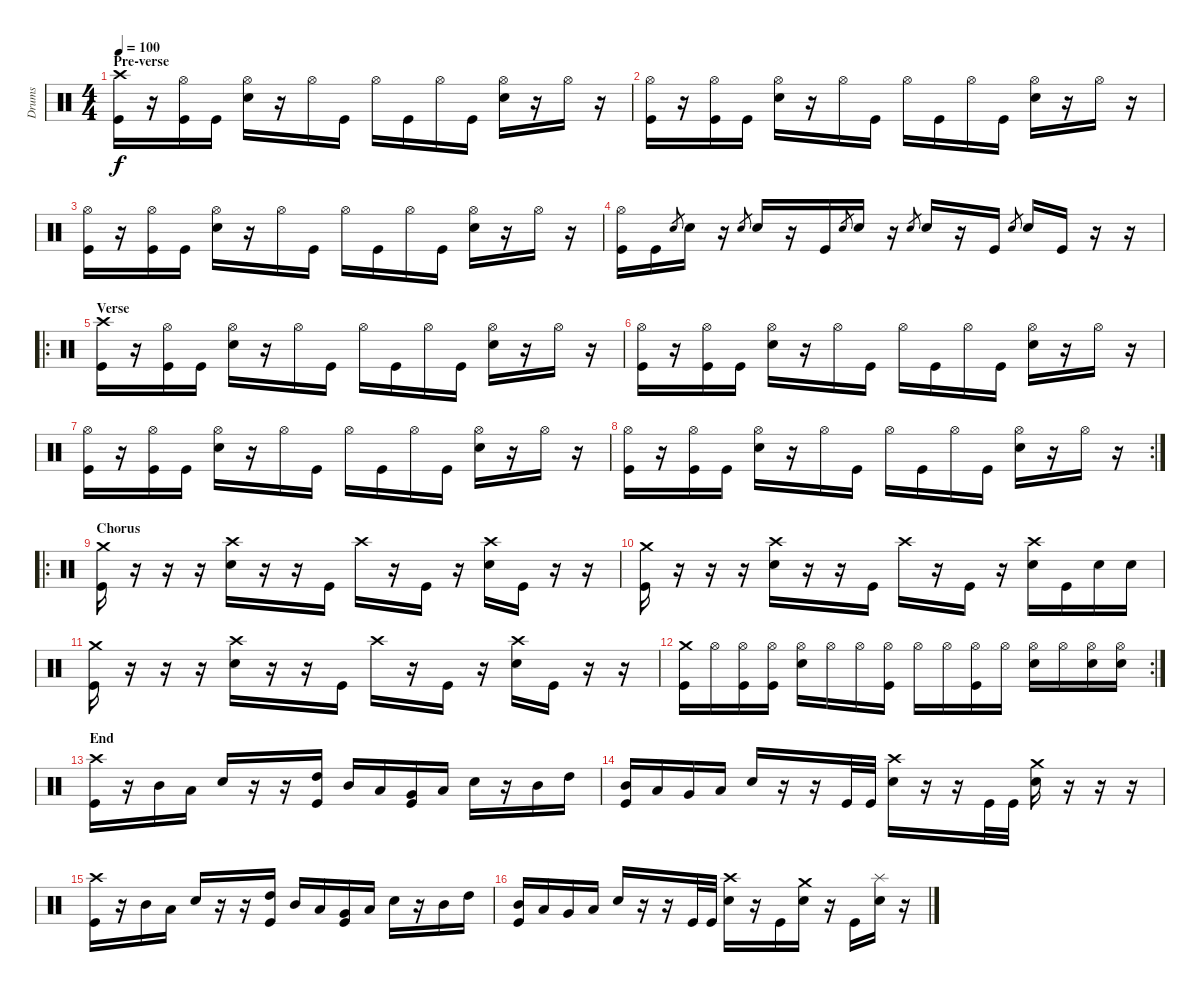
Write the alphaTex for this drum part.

\track ("Drums" "Drums") {instrument percussion}
\staff {score}
\articulation defaults
\ts (4 4)
\section ("" "Pre-verse")
\tempo 100
\clef neutral
\ks c
("Crash high (hit)" "Kick (hit)").16{dy f} r.16 ("Hi-Hat (open)" "Kick (hit)").16 "Kick (hit)".16 ("Hi-Hat (open)" "Electric Snare (hit)").16 r.16 "Hi-Hat (open)".16 "Kick (hit)".16 "Hi-Hat (open)".16 "Kick (hit)".16 "Hi-Hat (open)".16 "Kick (hit)".16 ("Hi-Hat (open)" "Electric Snare (hit)").16 r.16 "Hi-Hat (open)".16 r.16 |
("Hi-Hat (open)" "Kick (hit)").16 r.16 ("Hi-Hat (open)" "Kick (hit)").16 "Kick (hit)".16 ("Hi-Hat (open)" "Electric Snare (hit)").16 r.16 "Hi-Hat (open)".16 "Kick (hit)".16 "Hi-Hat (open)".16 "Kick (hit)".16 "Hi-Hat (open)".16 "Kick (hit)".16 ("Hi-Hat (open)" "Electric Snare (hit)").16 r.16 "Hi-Hat (open)".16 r.16 |
("Hi-Hat (open)" "Kick (hit)").16 r.16 ("Hi-Hat (open)" "Kick (hit)").16 "Kick (hit)".16 ("Hi-Hat (open)" "Electric Snare (hit)").16 r.16 "Hi-Hat (open)".16 "Kick (hit)".16 "Hi-Hat (open)".16 "Kick (hit)".16 "Hi-Hat (open)".16 "Kick (hit)".16 ("Hi-Hat (open)" "Electric Snare (hit)").16 r.16 "Hi-Hat (open)".16 r.16 |
("Hi-Hat (open)" "Kick (hit)").16 "Kick (hit)".16 "Electric Snare (hit)".8{gr} "Electric Snare (hit)".16 r.16 "Electric Snare (hit)".8{gr} "Electric Snare (hit)".16 r.16 "Kick (hit)".16 "Electric Snare (hit)".8{gr} "Electric Snare (hit)".16 r.16 "Electric Snare (hit)".8{gr} "Electric Snare (hit)".16 r.16 "Kick (hit)".16 "Electric Snare (hit)".8{gr} "Electric Snare (hit)".16 "Kick (hit)".16 r.16 r.16 |
\ro
\section ("" "Verse")
("Crash high (hit)" "Kick (hit)").16 r.16 ("Hi-Hat (open)" "Kick (hit)").16 "Kick (hit)".16 ("Hi-Hat (open)" "Electric Snare (hit)").16 r.16 "Hi-Hat (open)".16 "Kick (hit)".16 "Hi-Hat (open)".16 "Kick (hit)".16 "Hi-Hat (open)".16 "Kick (hit)".16 ("Hi-Hat (open)" "Electric Snare (hit)").16 r.16 "Hi-Hat (open)".16 r.16 |
("Hi-Hat (open)" "Kick (hit)").16 r.16 ("Hi-Hat (open)" "Kick (hit)").16 "Kick (hit)".16 ("Hi-Hat (open)" "Electric Snare (hit)").16 r.16 "Hi-Hat (open)".16 "Kick (hit)".16 "Hi-Hat (open)".16 "Kick (hit)".16 "Hi-Hat (open)".16 "Kick (hit)".16 ("Hi-Hat (open)" "Electric Snare (hit)").16 r.16 "Hi-Hat (open)".16 r.16 |
("Hi-Hat (open)" "Kick (hit)").16 r.16 ("Hi-Hat (open)" "Kick (hit)").16 "Kick (hit)".16 ("Hi-Hat (open)" "Electric Snare (hit)").16 r.16 "Hi-Hat (open)".16 "Kick (hit)".16 "Hi-Hat (open)".16 "Kick (hit)".16 "Hi-Hat (open)".16 "Kick (hit)".16 ("Hi-Hat (open)" "Electric Snare (hit)").16 r.16 "Hi-Hat (open)".16 r.16 |
\rc 2
("Hi-Hat (open)" "Kick (hit)").16 r.16 ("Hi-Hat (open)" "Kick (hit)").16 "Kick (hit)".16 ("Hi-Hat (open)" "Electric Snare (hit)").16 r.16 "Hi-Hat (open)".16 "Kick (hit)".16 "Hi-Hat (open)".16 "Kick (hit)".16 "Hi-Hat (open)".16 "Kick (hit)".16 ("Hi-Hat (open)" "Electric Snare (hit)").16 r.16 "Hi-Hat (open)".16 r.16 |
\ro
\section ("" "Chorus")
("Crash medium (hit)" "Kick (hit)").16 r.16 r.16 r.16 ("Crash high (hit)" "Electric Snare (hit)").16 r.16 r.16 "Kick (hit)".16 "Crash high (hit)".16 r.16 "Kick (hit)".16 r.16 ("Crash high (hit)" "Electric Snare (hit)").16 "Kick (hit)".16 r.16 r.16 |
("Crash medium (hit)" "Kick (hit)").16 r.16 r.16 r.16 ("Crash high (hit)" "Electric Snare (hit)").16 r.16 r.16 "Kick (hit)".16 "Crash high (hit)".16 r.16 "Kick (hit)".16 r.16 ("Crash high (hit)" "Electric Snare (hit)").16 "Kick (hit)".16 "Electric Snare (hit)".16 "Electric Snare (hit)".16 |
("Crash medium (hit)" "Kick (hit)").16 r.16 r.16 r.16 ("Crash high (hit)" "Electric Snare (hit)").16 r.16 r.16 "Kick (hit)".16 "Crash high (hit)".16 r.16 "Kick (hit)".16 r.16 ("Crash high (hit)" "Electric Snare (hit)").16 "Kick (hit)".16 r.16 r.16 |
\rc 2
("Crash medium (hit)" "Kick (hit)").16 "Hi-Hat (open)".16 ("Hi-Hat (open)" "Kick (hit)").16 ("Hi-Hat (open)" "Kick (hit)").16 ("Hi-Hat (open)" "Electric Snare (hit)").16 "Hi-Hat (open)".16 "Hi-Hat (open)".16 ("Hi-Hat (open)" "Kick (hit)").16 "Hi-Hat (open)".16 "Hi-Hat (open)".16 ("Hi-Hat (open)" "Kick (hit)").16 "Hi-Hat (open)".16 ("Hi-Hat (open)" "Electric Snare (hit)").16 "Hi-Hat (open)".16 ("Hi-Hat (open)" "Electric Snare (hit)").16 ("Hi-Hat (open)" "Electric Snare (hit)").16 |
\section ("" "End")
("Crash high (hit)" "Kick (hit)").16 r.16 "Mid Tom (hit)".16 "Low Tom (hit)".16 "Electric Snare (hit)".16 r.16 r.16 ("High Tom (hit)" "Kick (hit)").16 "Mid Tom (hit)".16 "Low Tom (hit)".16 ("Very Low Tom (hit)" "Kick (hit)").16 "Low Floor Tom (hit)".16 "Electric Snare (hit)".16 r.16 "Mid Tom (hit)".16 "High Tom (hit)".16 |
("Mid Tom (hit)" "Kick (hit)").16 "Low Tom (hit)".16 "Very Low Tom (hit)".16 "Low Floor Tom (hit)".16 "Electric Snare (hit)".16 r.16 r.16 "Kick (hit)".32 "Kick (hit)".32 ("Crash high (hit)" "Electric Snare (hit)").16 r.16 r.16 "Kick (hit)".32 "Kick (hit)".32 ("Crash medium (hit)" "Electric Snare (hit)").16 r.16 r.16 r.16 |
("Crash high (hit)" "Kick (hit)").16 r.16 "Mid Tom (hit)".16 "Low Tom (hit)".16 "Electric Snare (hit)".16 r.16 r.16 ("High Tom (hit)" "Kick (hit)").16 "Mid Tom (hit)".16 "Low Tom (hit)".16 ("Very Low Tom (hit)" "Kick (hit)").16 "Low Floor Tom (hit)".16 "Electric Snare (hit)".16 r.16 "Mid Tom (hit)".16 "High Tom (hit)".16 |
("Mid Tom (hit)" "Kick (hit)").16 "Low Tom (hit)".16 "Very Low Tom (hit)".16 "Low Floor Tom (hit)".16 "Electric Snare (hit)".16 r.16 r.16 "Kick (hit)".32 "Kick (hit)".32 ("Crash high (hit)" "Electric Snare (hit)").16 r.16 "Kick (hit)".16 ("Crash medium (hit)" "Electric Snare (hit)").16 r.16 "Kick (hit)".16 ("Splash (hit)" "Electric Snare (hit)").16 r.16
